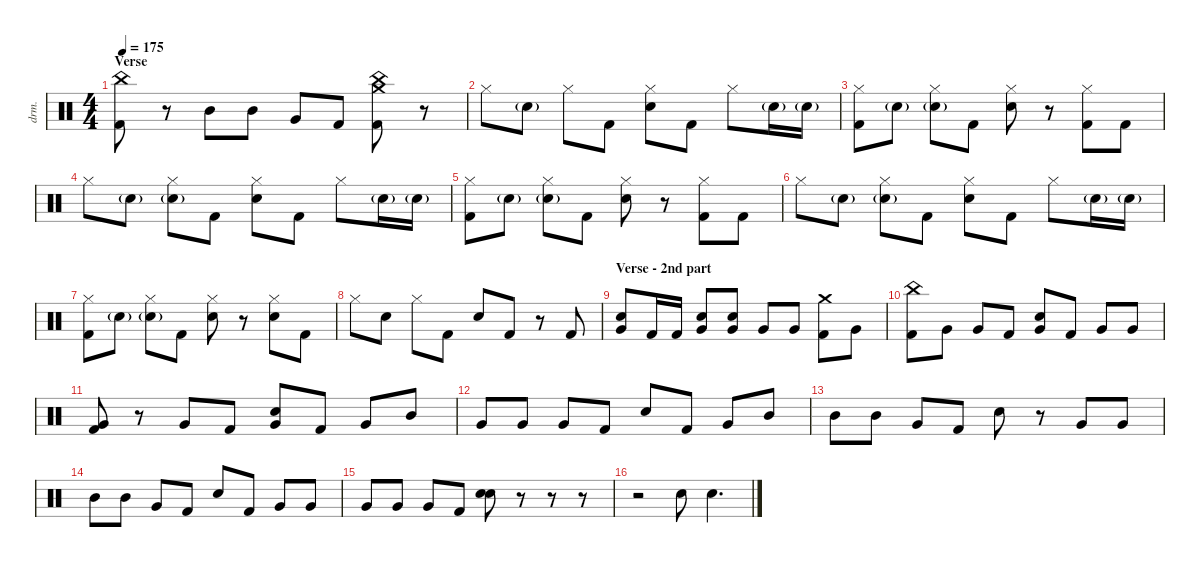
\defaultSystemsLayout 4
\hideDynamics
\bracketExtendMode nobrackets
\track ("Drums - Mario" "drm.") {instrument percussion}
\staff {score}
\articulation defaults
\ts (4 4)
\section ("" "Verse")
\tempo 175
\clef neutral
\ks c
("China (hit)" "Kick (hit) 2").8{dy ff} r.8 "Mid Tom (hit)".8 "Mid Tom (hit)".8 "Very Low Tom (hit)".8 "Kick (hit) 2".8 ("Kick (hit) 2" "China (hit)" "Crash medium (hit)").8 r.8 |
"Hi-Hat (closed)".8 "Snare (hit) 2"{g}.8 "Hi-Hat (closed)".8 "Kick (hit) 2".8 ("Hi-Hat (closed)" "Snare (hit) 2").8 "Kick (hit) 2".8 "Hi-Hat (closed)".8 "Snare (hit) 2"{g}.16 "Snare (hit) 2"{g}.16 |
("Hi-Hat (closed)" "Kick (hit) 2").8 "Snare (hit) 2"{g}.8 ("Hi-Hat (closed)" "Snare (hit) 2"{g}).8 "Kick (hit) 2".8 ("Hi-Hat (closed)" "Snare (hit) 2").8 r.8 ("Hi-Hat (closed)" "Kick (hit) 2").8 "Kick (hit) 2".8 |
"Hi-Hat (closed)".8 "Snare (hit) 2"{g}.8 ("Hi-Hat (closed)" "Snare (hit) 2"{g}).8 "Kick (hit) 2".8 ("Hi-Hat (closed)" "Snare (hit) 2").8 "Kick (hit) 2".8 "Hi-Hat (closed)".8 "Snare (hit) 2"{g}.16 "Snare (hit) 2"{g}.16 |
("Hi-Hat (closed)" "Kick (hit) 2").8 "Snare (hit) 2"{g}.8 ("Hi-Hat (closed)" "Snare (hit) 2"{g}).8 "Kick (hit) 2".8 ("Hi-Hat (closed)" "Snare (hit) 2").8 r.8 ("Hi-Hat (closed)" "Kick (hit) 2").8 "Kick (hit) 2".8 |
"Hi-Hat (closed)".8 "Snare (hit) 2"{g}.8 ("Hi-Hat (closed)" "Snare (hit) 2"{g}).8 "Kick (hit) 2".8 ("Hi-Hat (closed)" "Snare (hit) 2").8 "Kick (hit) 2".8 "Hi-Hat (closed)".8 "Snare (hit) 2"{g}.16 "Snare (hit) 2"{g}.16 |
("Hi-Hat (closed)" "Kick (hit) 2").8 "Snare (hit) 2"{g}.8 ("Hi-Hat (closed)" "Snare (hit) 2"{g}).8 "Kick (hit) 2".8 ("Hi-Hat (closed)" "Snare (hit) 2").8 r.8 ("Hi-Hat (closed)" "Snare (hit) 2").8 "Kick (hit) 2".8 |
"Hi-Hat (closed)".8 "Snare (hit) 2".8 "Hi-Hat (closed)".8 "Kick (hit) 2".8 "Snare (hit) 2".8 "Kick (hit) 2".8 r.8 "Kick (hit) 2".8 |
\section ("" "Verse - 2nd part")
("Snare (hit) 2" "Very Low Tom (hit)").8 "Kick (hit) 2".16 "Kick (hit) 2".16 ("Snare (hit) 2" "Very Low Tom (hit)").8 ("Snare (hit) 2" "Very Low Tom (hit)").8 "Very Low Tom (hit)".8 "Very Low Tom (hit)".8 ("Kick (hit) 2" "Crash medium (hit)").8 "Very Low Tom (hit)".8 |
("China (hit)" "Kick (hit) 2").8 "Very Low Tom (hit)".8 "Very Low Tom (hit)".8 "Kick (hit) 2".8 ("Snare (hit) 2" "Very Low Tom (hit)").8 "Kick (hit) 2".8 "Very Low Tom (hit)".8 "Very Low Tom (hit)".8 |
("Kick (hit) 2" "Very Low Tom (hit)").8 r.8 "Very Low Tom (hit)".8 "Kick (hit) 2".8 ("Snare (hit) 2" "Very Low Tom (hit)").8 "Kick (hit) 2".8 "Very Low Tom (hit)".8 "Mid Tom (hit)".8 |
"Very Low Tom (hit)".8 "Very Low Tom (hit)".8 "Very Low Tom (hit)".8 "Kick (hit) 2".8 "Snare (hit) 2".8 "Kick (hit) 2".8 "Very Low Tom (hit)".8 "Mid Tom (hit)".8 |
"Mid Tom (hit)".8 "Mid Tom (hit)".8 "Very Low Tom (hit)".8 "Kick (hit) 2".8 "Snare (hit) 2".8 r.8 "Very Low Tom (hit)".8 "Very Low Tom (hit)".8 |
"Mid Tom (hit)".8 "Mid Tom (hit)".8 "Very Low Tom (hit)".8 "Kick (hit) 2".8 "Snare (hit) 2".8 "Kick (hit) 2".8 "Very Low Tom (hit)".8 "Very Low Tom (hit)".8 |
"Very Low Tom (hit)".8 "Very Low Tom (hit)".8 "Very Low Tom (hit)".8 "Kick (hit) 2".8 ("Snare (hit) 2" "Snare (hit) 2").8 r.8 r.8 r.8 |
r.2 "Snare (hit) 2".8 "Snare (hit) 2".4{d}
